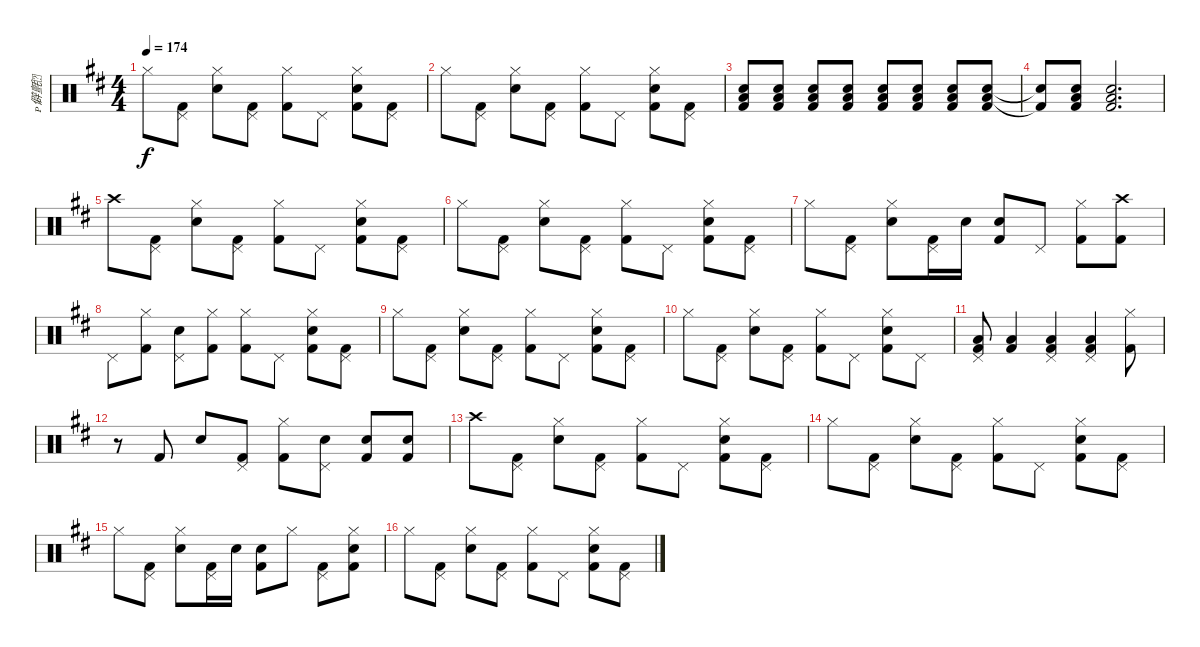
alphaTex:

\track ("僻氈" "僻氈") {instrument percussion}
\staff {score}
\articulation defaults
\ts (4 4)
\tempo 174
\clef neutral
\ks d "Hi-Hat (closed)".8{dy f}
("Pedal Hi-Hat (hit)" "Kick (hit) 2").8 ("Hi-Hat (closed)" "Electric Snare (hit)").8 ("Pedal Hi-Hat (hit)" "Kick (hit) 2").8 ("Hi-Hat (closed)" "Kick (hit) 2").8 "Pedal Hi-Hat (hit)".8 ("Hi-Hat (closed)" "Electric Snare (hit)" "Kick (hit) 2").8 ("Pedal Hi-Hat (hit)" "Kick (hit) 2").8 |
"Hi-Hat (closed)".8 ("Pedal Hi-Hat (hit)" "Kick (hit) 2").8 ("Hi-Hat (closed)" "Electric Snare (hit)").8 ("Pedal Hi-Hat (hit)" "Kick (hit) 2").8 ("Hi-Hat (closed)" "Kick (hit) 2").8 "Pedal Hi-Hat (hit)".8 ("Hi-Hat (closed)" "Electric Snare (hit)" "Kick (hit) 2").8 ("Pedal Hi-Hat (hit)" "Kick (hit) 2").8 |
("Electric Snare (hit)" "Low Tom (hit)" "Kick (hit) 2").8 ("Electric Snare (hit)" "Low Tom (hit)" "Kick (hit) 2").8 ("Electric Snare (hit)" "Low Tom (hit)" "Kick (hit) 2").8 ("Electric Snare (hit)" "Low Tom (hit)" "Kick (hit) 2").8 ("Electric Snare (hit)" "Low Tom (hit)" "Kick (hit) 2").8 ("Electric Snare (hit)" "Low Tom (hit)" "Kick (hit) 2").8 ("Electric Snare (hit)" "Low Tom (hit)" "Kick (hit) 2").8 ("Electric Snare (hit)" "Low Tom (hit)" "Kick (hit) 2").8 |
("Electric Snare (hit)"{t} "Kick (hit) 2"{t}).8 ("Electric Snare (hit)" "Low Tom (hit)" "Kick (hit) 2").8 ("Electric Snare (hit)" "Low Tom (hit)" "Kick (hit) 2").2{d} |
"Crash high (hit)".8 ("Pedal Hi-Hat (hit)" "Kick (hit) 2").8 ("Hi-Hat (closed)" "Electric Snare (hit)").8 ("Pedal Hi-Hat (hit)" "Kick (hit) 2").8 ("Hi-Hat (closed)" "Kick (hit) 2").8 "Pedal Hi-Hat (hit)".8 ("Hi-Hat (closed)" "Electric Snare (hit)" "Kick (hit) 2").8 ("Pedal Hi-Hat (hit)" "Kick (hit) 2").8 |
"Hi-Hat (closed)".8 ("Pedal Hi-Hat (hit)" "Kick (hit) 2").8 ("Hi-Hat (closed)" "Electric Snare (hit)").8 ("Pedal Hi-Hat (hit)" "Kick (hit) 2").8 ("Hi-Hat (closed)" "Kick (hit) 2").8 "Pedal Hi-Hat (hit)".8 ("Hi-Hat (closed)" "Electric Snare (hit)" "Kick (hit) 2").8 ("Pedal Hi-Hat (hit)" "Kick (hit) 2").8 |
"Hi-Hat (closed)".8 ("Pedal Hi-Hat (hit)" "Kick (hit) 2").8 ("Hi-Hat (closed)" "Electric Snare (hit)").8 ("Pedal Hi-Hat (hit)" "Kick (hit) 2").16 "Electric Snare (hit)".16 ("Electric Snare (hit)" "Kick (hit) 2").8 "Pedal Hi-Hat (hit)".8 ("Hi-Hat (closed)" "Kick (hit) 2").8 ("Crash high (hit)" "Kick (hit) 2").8 |
"Pedal Hi-Hat (hit)".8 ("Hi-Hat (closed)" "Kick (hit) 2").8 ("Pedal Hi-Hat (hit)" "Electric Snare (hit)").8 ("Hi-Hat (closed)" "Kick (hit) 2").8 ("Hi-Hat (closed)" "Kick (hit) 2").8 "Pedal Hi-Hat (hit)".8 ("Hi-Hat (closed)" "Electric Snare (hit)" "Kick (hit) 2").8 ("Pedal Hi-Hat (hit)" "Kick (hit) 2").8 |
"Hi-Hat (closed)".8 ("Pedal Hi-Hat (hit)" "Kick (hit) 2").8 ("Hi-Hat (closed)" "Electric Snare (hit)").8 ("Pedal Hi-Hat (hit)" "Kick (hit) 2").8 ("Hi-Hat (closed)" "Kick (hit) 2").8 "Pedal Hi-Hat (hit)".8 ("Hi-Hat (closed)" "Electric Snare (hit)" "Kick (hit) 2").8 ("Pedal Hi-Hat (hit)" "Kick (hit) 2").8 |
"Hi-Hat (closed)".8 ("Pedal Hi-Hat (hit)" "Kick (hit) 2").8 ("Hi-Hat (closed)" "Electric Snare (hit)").8 ("Pedal Hi-Hat (hit)" "Kick (hit) 2").8 ("Hi-Hat (closed)" "Kick (hit) 2").8 "Pedal Hi-Hat (hit)".8 ("Hi-Hat (closed)" "Electric Snare (hit)" "Kick (hit) 2").8 "Pedal Hi-Hat (hit)".8 |
("Pedal Hi-Hat (hit)" "Low Tom (hit)" "Kick (hit) 2").8 ("Low Tom (hit)" "Kick (hit) 2").4 ("Pedal Hi-Hat (hit)" "Low Tom (hit)" "Kick (hit) 2").4 ("Pedal Hi-Hat (hit)" "Low Tom (hit)" "Kick (hit) 2").4 ("Hi-Hat (closed)" "Kick (hit) 2").8 |
r.8 "Kick (hit) 2".8 "Electric Snare (hit)".8 ("Pedal Hi-Hat (hit)" "Kick (hit) 2").8 ("Hi-Hat (closed)" "Kick (hit) 2").8 ("Pedal Hi-Hat (hit)" "Electric Snare (hit)").8 ("Electric Snare (hit)" "Kick (hit) 2").8 ("Electric Snare (hit)" "Kick (hit) 2").8 |
"Crash high (hit)".8 ("Pedal Hi-Hat (hit)" "Kick (hit) 2").8 ("Hi-Hat (closed)" "Electric Snare (hit)").8 ("Pedal Hi-Hat (hit)" "Kick (hit) 2").8 ("Hi-Hat (closed)" "Kick (hit) 2").8 "Pedal Hi-Hat (hit)".8 ("Hi-Hat (closed)" "Electric Snare (hit)" "Kick (hit) 2").8 ("Pedal Hi-Hat (hit)" "Kick (hit) 2").8 |
"Hi-Hat (closed)".8 ("Pedal Hi-Hat (hit)" "Kick (hit) 2").8 ("Hi-Hat (closed)" "Electric Snare (hit)").8 ("Pedal Hi-Hat (hit)" "Kick (hit) 2").8 ("Hi-Hat (closed)" "Kick (hit) 2").8 "Pedal Hi-Hat (hit)".8 ("Hi-Hat (closed)" "Electric Snare (hit)" "Kick (hit) 2").8 ("Pedal Hi-Hat (hit)" "Kick (hit) 2").8 |
"Hi-Hat (closed)".8 ("Pedal Hi-Hat (hit)" "Kick (hit) 2").8 ("Hi-Hat (closed)" "Electric Snare (hit)").8 ("Pedal Hi-Hat (hit)" "Kick (hit) 2").16 "Electric Snare (hit)".16 ("Electric Snare (hit)" "Kick (hit) 2").8 "Hi-Hat (closed)".8 ("Pedal Hi-Hat (hit)" "Kick (hit) 2").8 ("Hi-Hat (closed)" "Electric Snare (hit)" "Kick (hit) 2").8 |
"Hi-Hat (closed)".8 ("Pedal Hi-Hat (hit)" "Kick (hit) 2").8 ("Hi-Hat (closed)" "Electric Snare (hit)").8 ("Pedal Hi-Hat (hit)" "Kick (hit) 2").8 ("Hi-Hat (closed)" "Kick (hit) 2").8 "Pedal Hi-Hat (hit)".8 ("Hi-Hat (closed)" "Electric Snare (hit)" "Kick (hit) 2").8 ("Pedal Hi-Hat (hit)" "Kick (hit) 2").8
